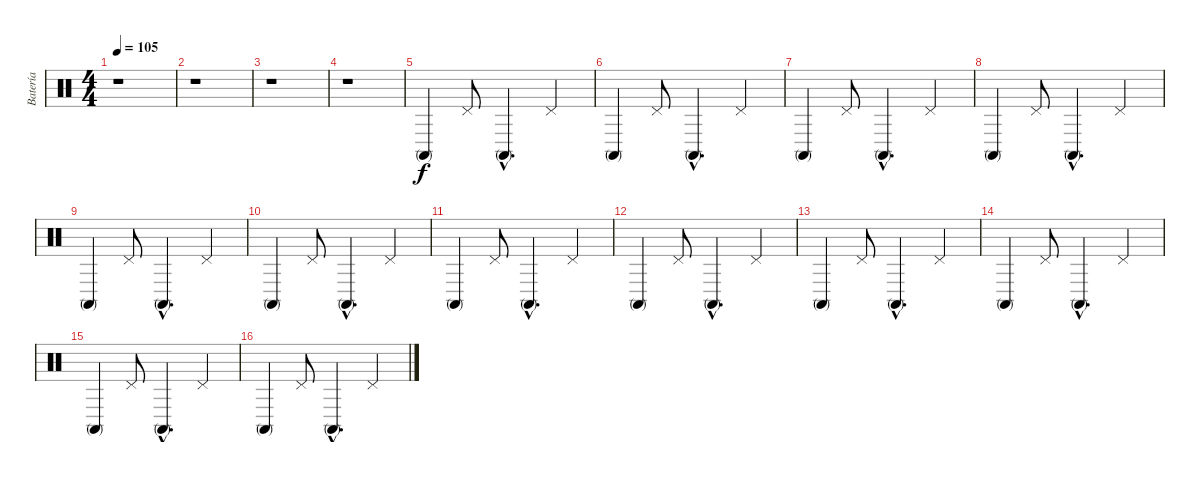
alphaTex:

\track ("Batería" "Batería") {instrument percussion}
\staff {score}
\articulation defaults
\ts (4 4)
\tempo 105
\clef neutral
\ks c
r.1{dy f} |
r.1 |
r.1 |
r.1 |
"Conga high (mute)".4 "Pedal Hi-Hat (hit)".8 "Conga high (mute)"{hac}.4{d} "Pedal Hi-Hat (hit)".4 |
"Conga high (mute)".4 "Pedal Hi-Hat (hit)".8 "Conga high (mute)"{hac}.4{d} "Pedal Hi-Hat (hit)".4 |
"Conga high (mute)".4 "Pedal Hi-Hat (hit)".8 "Conga high (mute)"{hac}.4{d} "Pedal Hi-Hat (hit)".4 |
"Conga high (mute)".4 "Pedal Hi-Hat (hit)".8 "Conga high (mute)"{hac}.4{d} "Pedal Hi-Hat (hit)".4 |
"Conga high (mute)".4 "Pedal Hi-Hat (hit)".8 "Conga high (mute)"{hac}.4{d} "Pedal Hi-Hat (hit)".4 |
"Conga high (mute)".4 "Pedal Hi-Hat (hit)".8 "Conga high (mute)"{hac}.4{d} "Pedal Hi-Hat (hit)".4 |
"Conga high (mute)".4 "Pedal Hi-Hat (hit)".8 "Conga high (mute)"{hac}.4{d} "Pedal Hi-Hat (hit)".4 |
"Conga high (mute)".4 "Pedal Hi-Hat (hit)".8 "Conga high (mute)"{hac}.4{d} "Pedal Hi-Hat (hit)".4 |
"Conga high (mute)".4 "Pedal Hi-Hat (hit)".8 "Conga high (mute)"{hac}.4{d} "Pedal Hi-Hat (hit)".4 |
"Conga high (mute)".4 "Pedal Hi-Hat (hit)".8 "Conga high (mute)"{hac}.4{d} "Pedal Hi-Hat (hit)".4 |
"Conga high (mute)".4 "Pedal Hi-Hat (hit)".8 "Conga high (mute)"{hac}.4{d} "Pedal Hi-Hat (hit)".4 |
"Conga high (mute)".4 "Pedal Hi-Hat (hit)".8 "Conga high (mute)"{hac}.4{d} "Pedal Hi-Hat (hit)".4
